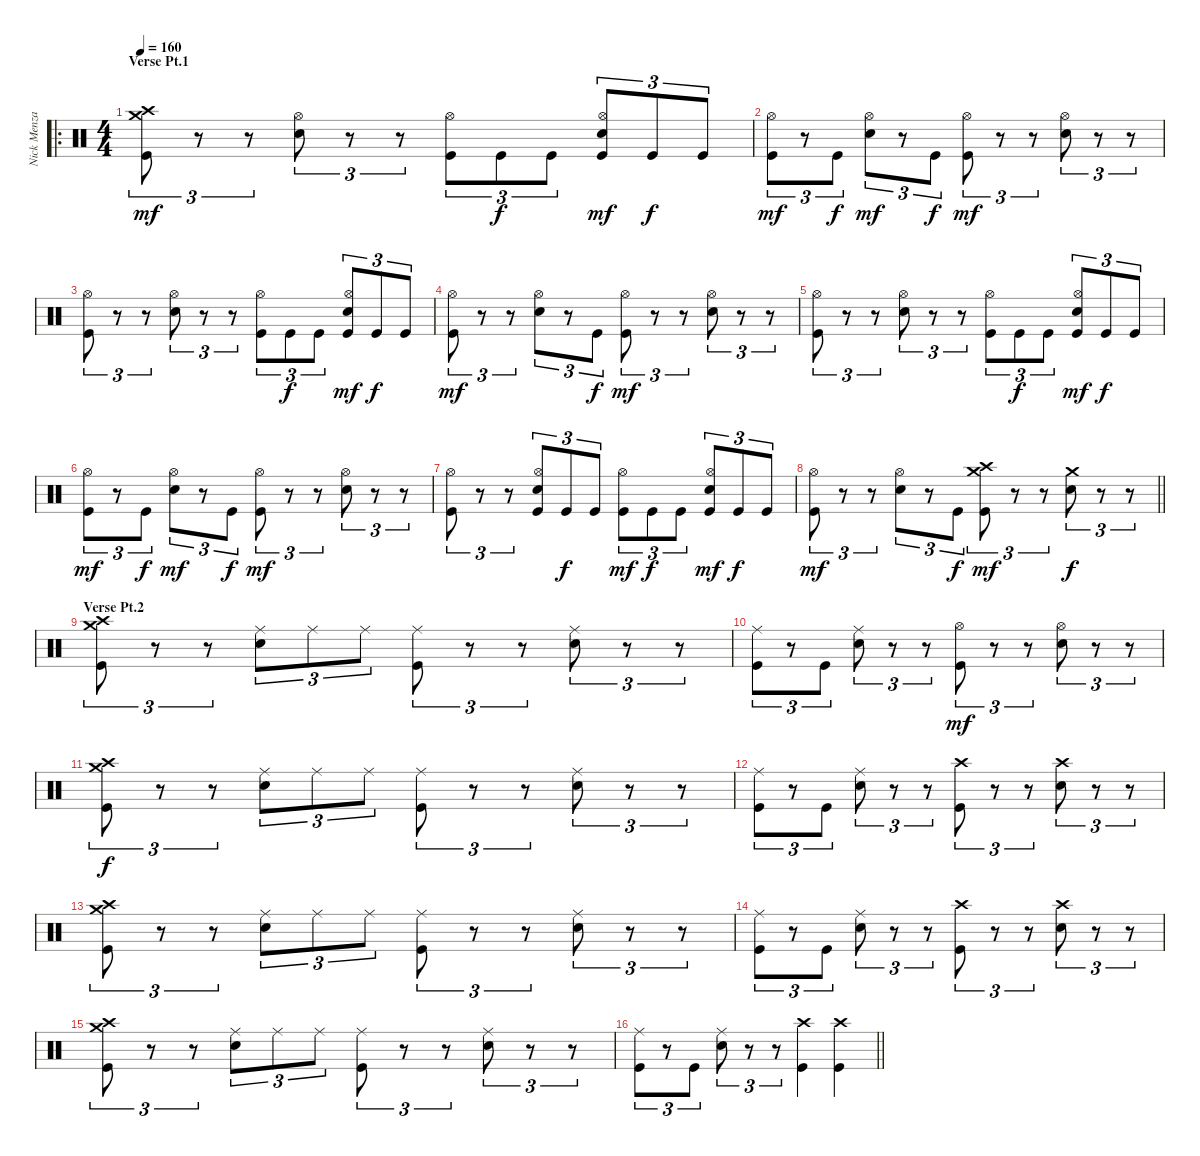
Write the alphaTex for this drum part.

\track ("Nick Menza" "Nick Menza") {instrument percussion}
\staff {score}
\articulation defaults
\ro
\ts (4 4)
\section ("" "Verse Pt.1")
\tempo 160
\clef neutral
\ks c
("Crash medium (hit)" "Crash high (hit)" "Kick (hit)").8{tu (3 2) dy mf} r.8{tu (3 2)} r.8{tu (3 2)} ("Hi-Hat (open)" "Snare (hit) 2").8{tu (3 2)} r.8{tu (3 2)} r.8{tu (3 2)} ("Hi-Hat (open)" "Kick (hit)").8{tu (3 2)} "Kick (hit)".8{tu (3 2) dy f} "Kick (hit)".8{tu (3 2)} ("Hi-Hat (open)" "Snare (hit) 2" "Kick (hit)").8{tu (3 2) dy mf} "Kick (hit)".8{tu (3 2) dy f} "Kick (hit)".8{tu (3 2)} |
("Hi-Hat (open)" "Kick (hit)").8{tu (3 2) dy mf} r.8{tu (3 2)} "Kick (hit)".8{tu (3 2) dy f} ("Hi-Hat (open)" "Snare (hit) 2").8{tu (3 2) dy mf} r.8{tu (3 2)} "Kick (hit)".8{tu (3 2) dy f} ("Hi-Hat (open)" "Kick (hit)").8{tu (3 2) dy mf} r.8{tu (3 2)} r.8{tu (3 2)} ("Hi-Hat (open)" "Snare (hit) 2").8{tu (3 2)} r.8{tu (3 2)} r.8{tu (3 2)} |
("Hi-Hat (open)" "Kick (hit)").8{tu (3 2)} r.8{tu (3 2)} r.8{tu (3 2)} ("Hi-Hat (open)" "Snare (hit) 2").8{tu (3 2)} r.8{tu (3 2)} r.8{tu (3 2)} ("Hi-Hat (open)" "Kick (hit)").8{tu (3 2)} "Kick (hit)".8{tu (3 2) dy f} "Kick (hit)".8{tu (3 2)} ("Hi-Hat (open)" "Snare (hit) 2" "Kick (hit)").8{tu (3 2) dy mf} "Kick (hit)".8{tu (3 2) dy f} "Kick (hit)".8{tu (3 2)} |
("Hi-Hat (open)" "Kick (hit)").8{tu (3 2) dy mf} r.8{tu (3 2)} r.8{tu (3 2)} ("Hi-Hat (open)" "Snare (hit) 2").8{tu (3 2)} r.8{tu (3 2)} "Kick (hit)".8{tu (3 2) dy f} ("Hi-Hat (open)" "Kick (hit)").8{tu (3 2) dy mf} r.8{tu (3 2)} r.8{tu (3 2)} ("Hi-Hat (open)" "Snare (hit) 2").8{tu (3 2)} r.8{tu (3 2)} r.8{tu (3 2)} |
("Hi-Hat (open)" "Kick (hit)").8{tu (3 2)} r.8{tu (3 2)} r.8{tu (3 2)} ("Hi-Hat (open)" "Snare (hit) 2").8{tu (3 2)} r.8{tu (3 2)} r.8{tu (3 2)} ("Hi-Hat (open)" "Kick (hit)").8{tu (3 2)} "Kick (hit)".8{tu (3 2) dy f} "Kick (hit)".8{tu (3 2)} ("Hi-Hat (open)" "Snare (hit) 2" "Kick (hit)").8{tu (3 2) dy mf} "Kick (hit)".8{tu (3 2) dy f} "Kick (hit)".8{tu (3 2)} |
("Hi-Hat (open)" "Kick (hit)").8{tu (3 2) dy mf} r.8{tu (3 2)} "Kick (hit)".8{tu (3 2) dy f} ("Hi-Hat (open)" "Snare (hit) 2").8{tu (3 2) dy mf} r.8{tu (3 2)} "Kick (hit)".8{tu (3 2) dy f} ("Hi-Hat (open)" "Kick (hit)").8{tu (3 2) dy mf} r.8{tu (3 2)} r.8{tu (3 2)} ("Hi-Hat (open)" "Snare (hit) 2").8{tu (3 2)} r.8{tu (3 2)} r.8{tu (3 2)} |
("Hi-Hat (open)" "Kick (hit)").8{tu (3 2)} r.8{tu (3 2)} r.8{tu (3 2)} ("Hi-Hat (open)" "Snare (hit) 2" "Kick (hit)").8{tu (3 2)} "Kick (hit)".8{tu (3 2) dy f} "Kick (hit)".8{tu (3 2)} ("Hi-Hat (open)" "Kick (hit)").8{tu (3 2) dy mf} "Kick (hit)".8{tu (3 2) dy f} "Kick (hit)".8{tu (3 2)} ("Hi-Hat (open)" "Snare (hit) 2" "Kick (hit)").8{tu (3 2) dy mf} "Kick (hit)".8{tu (3 2) dy f} "Kick (hit)".8{tu (3 2)} |
\barLineRight lightlight
("Hi-Hat (open)" "Kick (hit)").8{tu (3 2) dy mf} r.8{tu (3 2)} r.8{tu (3 2)} ("Hi-Hat (open)" "Snare (hit) 2").8{tu (3 2)} r.8{tu (3 2)} "Kick (hit)".8{tu (3 2) dy f} ("Crash medium (hit)" "Crash high (hit)" "Kick (hit)").8{tu (3 2) dy mf} r.8{tu (3 2)} r.8{tu (3 2)} ("Crash medium (hit)" "Snare (hit) 2").8{tu (3 2) dy f} r.8{tu (3 2)} r.8{tu (3 2)} |
\section ("" "Verse Pt.2")
("Crash high (hit)" "Crash medium (hit)" "Kick (hit)").8{tu (3 2)} r.8{tu (3 2)} r.8{tu (3 2)} ("Ride (middle)" "Snare (hit) 2").8{tu (3 2)} "Ride (middle)".8{tu (3 2)} "Ride (middle)".8{tu (3 2)} ("Ride (middle)" "Kick (hit)").8{tu (3 2)} r.8{tu (3 2)} r.8{tu (3 2)} ("Ride (middle)" "Snare (hit) 2").8{tu (3 2)} r.8{tu (3 2)} r.8{tu (3 2)} |
("Ride (middle)" "Kick (hit)").8{tu (3 2)} r.8{tu (3 2)} "Kick (hit)".8{tu (3 2)} ("Ride (middle)" "Snare (hit) 2").8{tu (3 2)} r.8{tu (3 2)} r.8{tu (3 2)} ("Hi-Hat (open)" "Kick (hit)").8{tu (3 2) dy mf} r.8{tu (3 2)} r.8{tu (3 2)} ("Hi-Hat (open)" "Snare (hit) 2").8{tu (3 2)} r.8{tu (3 2)} r.8{tu (3 2)} |
("Crash high (hit)" "Crash medium (hit)" "Kick (hit)").8{tu (3 2) dy f} r.8{tu (3 2)} r.8{tu (3 2)} ("Ride (middle)" "Snare (hit) 2").8{tu (3 2)} "Ride (middle)".8{tu (3 2)} "Ride (middle)".8{tu (3 2)} ("Ride (middle)" "Kick (hit)").8{tu (3 2)} r.8{tu (3 2)} r.8{tu (3 2)} ("Ride (middle)" "Snare (hit) 2").8{tu (3 2)} r.8{tu (3 2)} r.8{tu (3 2)} |
("Ride (middle)" "Kick (hit)").8{tu (3 2)} r.8{tu (3 2)} "Kick (hit)".8{tu (3 2)} ("Ride (middle)" "Snare (hit) 2").8{tu (3 2)} r.8{tu (3 2)} r.8{tu (3 2)} ("Crash high (hit)" "Kick (hit)").8{tu (3 2)} r.8{tu (3 2)} r.8{tu (3 2)} ("Crash high (hit)" "Snare (hit) 2").8{tu (3 2)} r.8{tu (3 2)} r.8{tu (3 2)} |
("Crash high (hit)" "Crash medium (hit)" "Kick (hit)").8{tu (3 2)} r.8{tu (3 2)} r.8{tu (3 2)} ("Ride (middle)" "Snare (hit) 2").8{tu (3 2)} "Ride (middle)".8{tu (3 2)} "Ride (middle)".8{tu (3 2)} ("Ride (middle)" "Kick (hit)").8{tu (3 2)} r.8{tu (3 2)} r.8{tu (3 2)} ("Ride (middle)" "Snare (hit) 2").8{tu (3 2)} r.8{tu (3 2)} r.8{tu (3 2)} |
("Ride (middle)" "Kick (hit)").8{tu (3 2)} r.8{tu (3 2)} "Kick (hit)".8{tu (3 2)} ("Ride (middle)" "Snare (hit) 2").8{tu (3 2)} r.8{tu (3 2)} r.8{tu (3 2)} ("Crash high (hit)" "Kick (hit)").8{tu (3 2)} r.8{tu (3 2)} r.8{tu (3 2)} ("Crash high (hit)" "Snare (hit) 2").8{tu (3 2)} r.8{tu (3 2)} r.8{tu (3 2)} |
("Crash high (hit)" "Crash medium (hit)" "Kick (hit)").8{tu (3 2)} r.8{tu (3 2)} r.8{tu (3 2)} ("Ride (middle)" "Snare (hit) 2").8{tu (3 2)} "Ride (middle)".8{tu (3 2)} "Ride (middle)".8{tu (3 2)} ("Ride (middle)" "Kick (hit)").8{tu (3 2)} r.8{tu (3 2)} r.8{tu (3 2)} ("Ride (middle)" "Snare (hit) 2").8{tu (3 2)} r.8{tu (3 2)} r.8{tu (3 2)} |
\barLineRight lightlight
("Ride (middle)" "Kick (hit)").8{tu (3 2)} r.8{tu (3 2)} "Kick (hit)".8{tu (3 2)} ("Ride (middle)" "Snare (hit) 2").8{tu (3 2)} r.8{tu (3 2)} r.8{tu (3 2)} ("Crash high (hit)" "Kick (hit)").4 ("Crash high (hit)" "Kick (hit)").4
